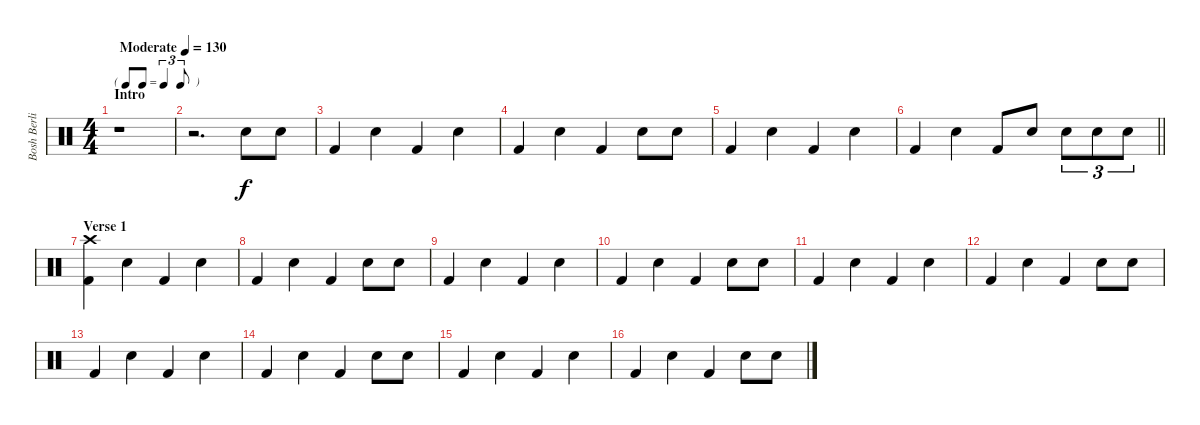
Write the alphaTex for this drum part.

\track ("Bosh Berlin" "Bosh Berli") {instrument percussion}
\staff {score}
\articulation defaults
\ts (4 4)
\tf triplet8th
\section ("" "Intro")
\tempo (130 "Moderate")
\clef neutral
\ks c
r.1{dy f} |
r.2{d} "Snare (hit) 2".8 "Snare (hit) 2".8 |
"Kick (hit) 2".4 "Snare (hit) 2".4 "Kick (hit) 2".4 "Snare (hit) 2".4 |
"Kick (hit) 2".4 "Snare (hit) 2".4 "Kick (hit) 2".4 "Snare (hit) 2".8 "Snare (hit) 2".8 |
"Kick (hit) 2".4 "Snare (hit) 2".4 "Kick (hit) 2".4 "Snare (hit) 2".4 |
\barLineRight lightlight "Kick (hit) 2".4 "Snare (hit) 2".4 "Kick (hit) 2".8 "Snare (hit) 2".8 "Snare (hit) 2".8{tu (3 2)} "Snare (hit) 2".8{tu (3 2)} "Snare (hit) 2".8{tu (3 2)}
|
\section ("" "Verse 1")
("Crash high (hit)" "Kick (hit) 2").4 "Snare (hit) 2".4 "Kick (hit) 2".4 "Snare (hit) 2".4 |
"Kick (hit) 2".4 "Snare (hit) 2".4 "Kick (hit) 2".4 "Snare (hit) 2".8 "Snare (hit) 2".8 |
"Kick (hit) 2".4 "Snare (hit) 2".4 "Kick (hit) 2".4 "Snare (hit) 2".4 |
"Kick (hit) 2".4 "Snare (hit) 2".4 "Kick (hit) 2".4 "Snare (hit) 2".8 "Snare (hit) 2".8 |
"Kick (hit) 2".4 "Snare (hit) 2".4 "Kick (hit) 2".4 "Snare (hit) 2".4 |
"Kick (hit) 2".4 "Snare (hit) 2".4 "Kick (hit) 2".4 "Snare (hit) 2".8 "Snare (hit) 2".8 |
"Kick (hit) 2".4 "Snare (hit) 2".4 "Kick (hit) 2".4 "Snare (hit) 2".4 |
"Kick (hit) 2".4 "Snare (hit) 2".4 "Kick (hit) 2".4 "Snare (hit) 2".8 "Snare (hit) 2".8 |
"Kick (hit) 2".4 "Snare (hit) 2".4 "Kick (hit) 2".4 "Snare (hit) 2".4 |
"Kick (hit) 2".4 "Snare (hit) 2".4 "Kick (hit) 2".4 "Snare (hit) 2".8 "Snare (hit) 2".8
